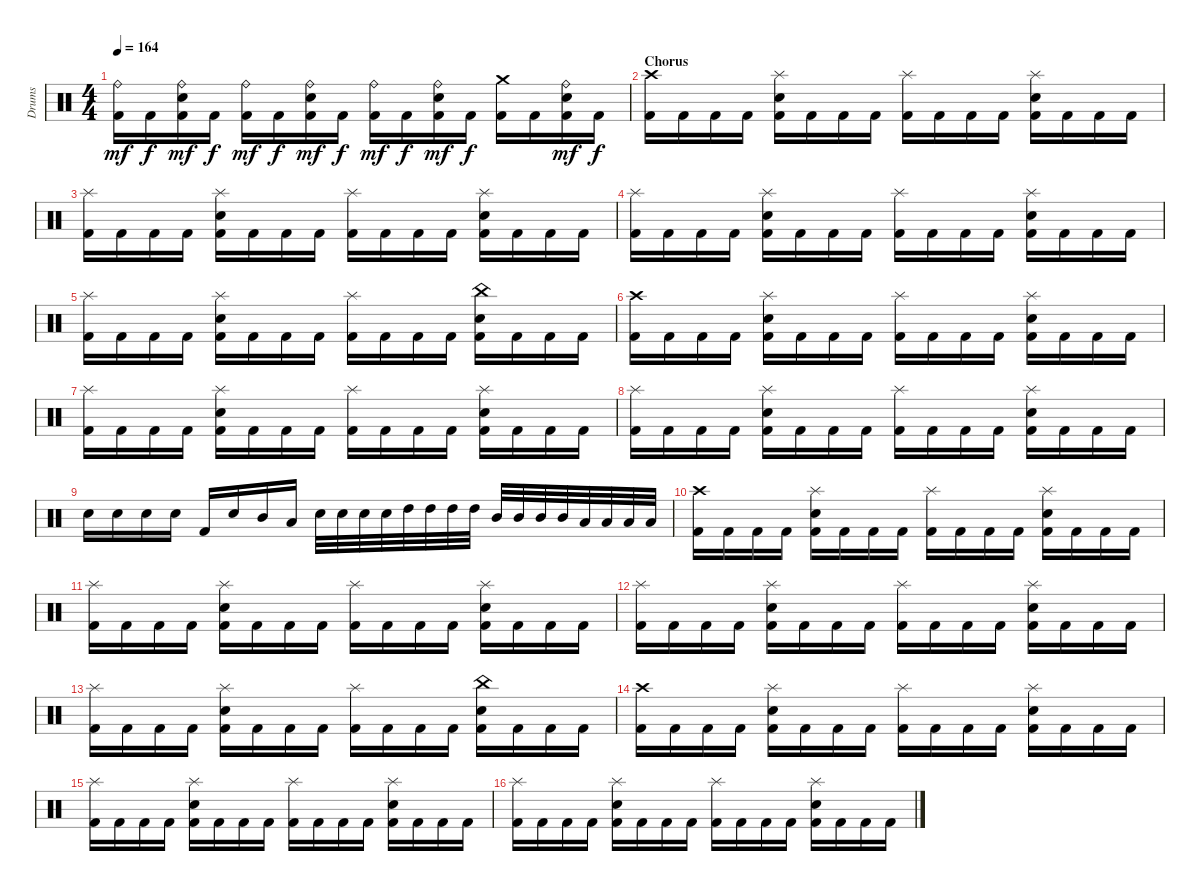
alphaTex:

\track ("Drums" "Drums") {instrument percussion}
\staff {score}
\articulation defaults
\ts (4 4)
\tempo 164
\clef neutral
\ks c
("Ride (bell)" "Kick (hit) 2").16{dy mf} "Kick (hit) 2".16{dy f} ("Ride (bell)" "Electric Snare (hit)" "Kick (hit) 2").16{dy mf} "Kick (hit) 2".16{dy f} ("Ride (bell)" "Kick (hit) 2").16{dy mf} "Kick (hit) 2".16{dy f} ("Ride (bell)" "Electric Snare (hit)" "Kick (hit) 2").16{dy mf} "Kick (hit) 2".16{dy f} ("Ride (bell)" "Kick (hit) 2").16{dy mf} "Kick (hit) 2".16{dy f} ("Ride (bell)" "Electric Snare (hit)" "Kick (hit) 2").16{dy mf} "Kick (hit) 2".16{dy f} ("Crash medium (hit)" "Kick (hit) 2").16 "Kick (hit) 2".16 ("Ride (bell)" "Electric Snare (hit)" "Kick (hit) 2").16{dy mf} "Kick (hit) 2".16{dy f} |
\section ("" "Chorus")
("Crash high (hit)" "Kick (hit) 2").16 "Kick (hit) 2".16 "Kick (hit) 2".16 "Kick (hit) 2".16 ("Splash (hit)" "Electric Snare (hit)" "Kick (hit) 2").16 "Kick (hit) 2".16 "Kick (hit) 2".16 "Kick (hit) 2".16 ("Splash (hit)" "Kick (hit) 2").16 "Kick (hit) 2".16 "Kick (hit) 2".16 "Kick (hit) 2".16 ("Splash (hit)" "Electric Snare (hit)" "Kick (hit) 2").16 "Kick (hit) 2".16 "Kick (hit) 2".16 "Kick (hit) 2".16 |
("Splash (hit)" "Kick (hit) 2").16 "Kick (hit) 2".16 "Kick (hit) 2".16 "Kick (hit) 2".16 ("Splash (hit)" "Electric Snare (hit)" "Kick (hit) 2").16 "Kick (hit) 2".16 "Kick (hit) 2".16 "Kick (hit) 2".16 ("Splash (hit)" "Kick (hit) 2").16 "Kick (hit) 2".16 "Kick (hit) 2".16 "Kick (hit) 2".16 ("Splash (hit)" "Electric Snare (hit)" "Kick (hit) 2").16 "Kick (hit) 2".16 "Kick (hit) 2".16 "Kick (hit) 2".16 |
("Splash (hit)" "Kick (hit) 2").16 "Kick (hit) 2".16 "Kick (hit) 2".16 "Kick (hit) 2".16 ("Splash (hit)" "Electric Snare (hit)" "Kick (hit) 2").16 "Kick (hit) 2".16 "Kick (hit) 2".16 "Kick (hit) 2".16 ("Splash (hit)" "Kick (hit) 2").16 "Kick (hit) 2".16 "Kick (hit) 2".16 "Kick (hit) 2".16 ("Splash (hit)" "Electric Snare (hit)" "Kick (hit) 2").16 "Kick (hit) 2".16 "Kick (hit) 2".16 "Kick (hit) 2".16 |
("Splash (hit)" "Kick (hit) 2").16 "Kick (hit) 2".16 "Kick (hit) 2".16 "Kick (hit) 2".16 ("Splash (hit)" "Electric Snare (hit)" "Kick (hit) 2").16 "Kick (hit) 2".16 "Kick (hit) 2".16 "Kick (hit) 2".16 ("Splash (hit)" "Kick (hit) 2").16 "Kick (hit) 2".16 "Kick (hit) 2".16 "Kick (hit) 2".16 ("China (hit)" "Electric Snare (hit)" "Kick (hit) 2").16 "Kick (hit) 2".16 "Kick (hit) 2".16 "Kick (hit) 2".16 |
("Crash high (hit)" "Kick (hit) 2").16 "Kick (hit) 2".16 "Kick (hit) 2".16 "Kick (hit) 2".16 ("Splash (hit)" "Electric Snare (hit)" "Kick (hit) 2").16 "Kick (hit) 2".16 "Kick (hit) 2".16 "Kick (hit) 2".16 ("Splash (hit)" "Kick (hit) 2").16 "Kick (hit) 2".16 "Kick (hit) 2".16 "Kick (hit) 2".16 ("Splash (hit)" "Electric Snare (hit)" "Kick (hit) 2").16 "Kick (hit) 2".16 "Kick (hit) 2".16 "Kick (hit) 2".16 |
("Splash (hit)" "Kick (hit) 2").16 "Kick (hit) 2".16 "Kick (hit) 2".16 "Kick (hit) 2".16 ("Splash (hit)" "Electric Snare (hit)" "Kick (hit) 2").16 "Kick (hit) 2".16 "Kick (hit) 2".16 "Kick (hit) 2".16 ("Splash (hit)" "Kick (hit) 2").16 "Kick (hit) 2".16 "Kick (hit) 2".16 "Kick (hit) 2".16 ("Splash (hit)" "Electric Snare (hit)" "Kick (hit) 2").16 "Kick (hit) 2".16 "Kick (hit) 2".16 "Kick (hit) 2".16 |
("Splash (hit)" "Kick (hit) 2").16 "Kick (hit) 2".16 "Kick (hit) 2".16 "Kick (hit) 2".16 ("Splash (hit)" "Electric Snare (hit)" "Kick (hit) 2").16 "Kick (hit) 2".16 "Kick (hit) 2".16 "Kick (hit) 2".16 ("Splash (hit)" "Kick (hit) 2").16 "Kick (hit) 2".16 "Kick (hit) 2".16 "Kick (hit) 2".16 ("Splash (hit)" "Electric Snare (hit)" "Kick (hit) 2").16 "Kick (hit) 2".16 "Kick (hit) 2".16 "Kick (hit) 2".16 |
"Electric Snare (hit)".16 "Electric Snare (hit)".16 "Electric Snare (hit)".16 "Electric Snare (hit)".16 "Kick (hit) 2".16 "Electric Snare (hit)".16 "Mid Tom (hit)".16 "Low Tom (hit)".16 "Electric Snare (hit)".32 "Electric Snare (hit)".32 "Electric Snare (hit)".32 "Electric Snare (hit)".32 "High Tom (hit)".32 "High Tom (hit)".32 "High Tom (hit)".32 "High Tom (hit)".32 "Mid Tom (hit)".32 "Mid Tom (hit)".32 "Mid Tom (hit)".32 "Mid Tom (hit)".32 "Low Tom (hit)".32 "Low Tom (hit)".32 "Low Tom (hit)".32 "Low Tom (hit)".32 |
("Crash high (hit)" "Kick (hit) 2").16 "Kick (hit) 2".16 "Kick (hit) 2".16 "Kick (hit) 2".16 ("Splash (hit)" "Electric Snare (hit)" "Kick (hit) 2").16 "Kick (hit) 2".16 "Kick (hit) 2".16 "Kick (hit) 2".16 ("Splash (hit)" "Kick (hit) 2").16 "Kick (hit) 2".16 "Kick (hit) 2".16 "Kick (hit) 2".16 ("Splash (hit)" "Electric Snare (hit)" "Kick (hit) 2").16 "Kick (hit) 2".16 "Kick (hit) 2".16 "Kick (hit) 2".16 |
("Splash (hit)" "Kick (hit) 2").16 "Kick (hit) 2".16 "Kick (hit) 2".16 "Kick (hit) 2".16 ("Splash (hit)" "Electric Snare (hit)" "Kick (hit) 2").16 "Kick (hit) 2".16 "Kick (hit) 2".16 "Kick (hit) 2".16 ("Splash (hit)" "Kick (hit) 2").16 "Kick (hit) 2".16 "Kick (hit) 2".16 "Kick (hit) 2".16 ("Splash (hit)" "Electric Snare (hit)" "Kick (hit) 2").16 "Kick (hit) 2".16 "Kick (hit) 2".16 "Kick (hit) 2".16 |
("Splash (hit)" "Kick (hit) 2").16 "Kick (hit) 2".16 "Kick (hit) 2".16 "Kick (hit) 2".16 ("Splash (hit)" "Electric Snare (hit)" "Kick (hit) 2").16 "Kick (hit) 2".16 "Kick (hit) 2".16 "Kick (hit) 2".16 ("Splash (hit)" "Kick (hit) 2").16 "Kick (hit) 2".16 "Kick (hit) 2".16 "Kick (hit) 2".16 ("Splash (hit)" "Electric Snare (hit)" "Kick (hit) 2").16 "Kick (hit) 2".16 "Kick (hit) 2".16 "Kick (hit) 2".16 |
("Splash (hit)" "Kick (hit) 2").16 "Kick (hit) 2".16 "Kick (hit) 2".16 "Kick (hit) 2".16 ("Splash (hit)" "Electric Snare (hit)" "Kick (hit) 2").16 "Kick (hit) 2".16 "Kick (hit) 2".16 "Kick (hit) 2".16 ("Splash (hit)" "Kick (hit) 2").16 "Kick (hit) 2".16 "Kick (hit) 2".16 "Kick (hit) 2".16 ("China (hit)" "Electric Snare (hit)" "Kick (hit) 2").16 "Kick (hit) 2".16 "Kick (hit) 2".16 "Kick (hit) 2".16 |
("Crash high (hit)" "Kick (hit) 2").16 "Kick (hit) 2".16 "Kick (hit) 2".16 "Kick (hit) 2".16 ("Splash (hit)" "Electric Snare (hit)" "Kick (hit) 2").16 "Kick (hit) 2".16 "Kick (hit) 2".16 "Kick (hit) 2".16 ("Splash (hit)" "Kick (hit) 2").16 "Kick (hit) 2".16 "Kick (hit) 2".16 "Kick (hit) 2".16 ("Splash (hit)" "Electric Snare (hit)" "Kick (hit) 2").16 "Kick (hit) 2".16 "Kick (hit) 2".16 "Kick (hit) 2".16 |
("Splash (hit)" "Kick (hit) 2").16 "Kick (hit) 2".16 "Kick (hit) 2".16 "Kick (hit) 2".16 ("Splash (hit)" "Electric Snare (hit)" "Kick (hit) 2").16 "Kick (hit) 2".16 "Kick (hit) 2".16 "Kick (hit) 2".16 ("Splash (hit)" "Kick (hit) 2").16 "Kick (hit) 2".16 "Kick (hit) 2".16 "Kick (hit) 2".16 ("Splash (hit)" "Electric Snare (hit)" "Kick (hit) 2").16 "Kick (hit) 2".16 "Kick (hit) 2".16 "Kick (hit) 2".16 |
("Splash (hit)" "Kick (hit) 2").16 "Kick (hit) 2".16 "Kick (hit) 2".16 "Kick (hit) 2".16 ("Splash (hit)" "Electric Snare (hit)" "Kick (hit) 2").16 "Kick (hit) 2".16 "Kick (hit) 2".16 "Kick (hit) 2".16 ("Splash (hit)" "Kick (hit) 2").16 "Kick (hit) 2".16 "Kick (hit) 2".16 "Kick (hit) 2".16 ("Splash (hit)" "Electric Snare (hit)" "Kick (hit) 2").16 "Kick (hit) 2".16 "Kick (hit) 2".16 "Kick (hit) 2".16
